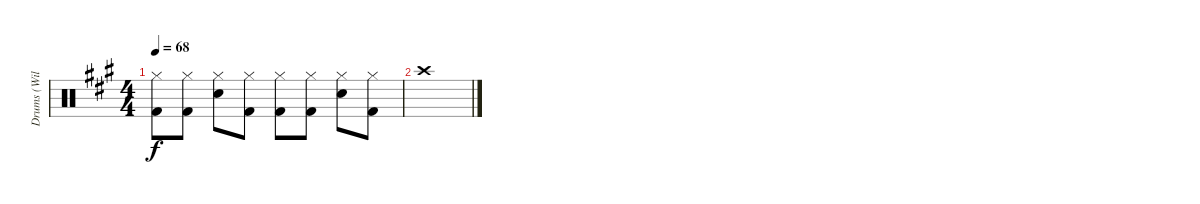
\track ("Drums (Will Champion)" "Drums (Wil") {instrument percussion}
\staff {score}
\articulation defaults
\ts (4 4)
\tempo 68
\clef neutral
\ks a
("Kick (hit) 2" "Hi-Hat (closed)").8{dy f} ("Kick (hit) 2" "Hi-Hat (closed)").8 ("Snare (hit) 2" "Hi-Hat (closed)").8 ("Kick (hit) 2" "Hi-Hat (closed)").8 ("Kick (hit) 2" "Hi-Hat (closed)").8 ("Kick (hit) 2" "Hi-Hat (closed)").8 ("Snare (hit) 2" "Hi-Hat (closed)").8 ("Kick (hit) 2" "Hi-Hat (closed)").8 |
"Crash high (hit)".1
